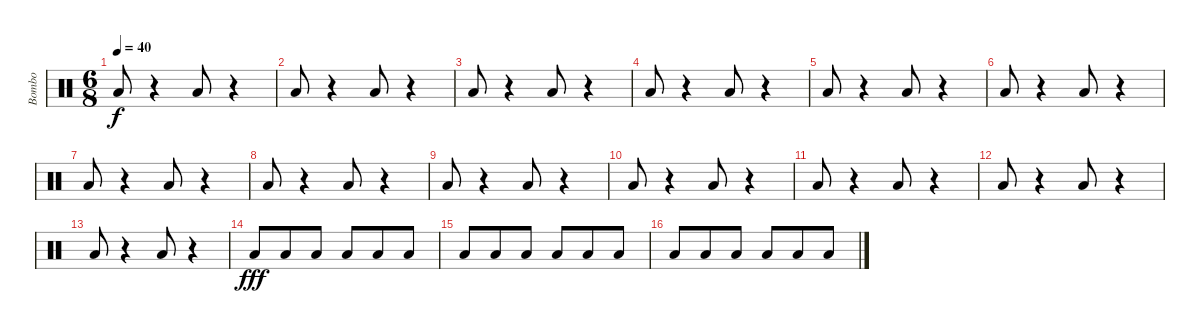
\track ("Bombo" "Bombo") {instrument percussion}
\staff {score}
\articulation defaults
\ts (6 8)
\tempo 40
\clef neutral
\ks c "Low Floor Tom (hit)".8{dy f}
r.4 "Low Floor Tom (hit)".8 r.4 |
"Low Floor Tom (hit)".8 r.4 "Low Floor Tom (hit)".8 r.4 |
"Low Floor Tom (hit)".8 r.4 "Low Floor Tom (hit)".8 r.4 |
"Low Floor Tom (hit)".8 r.4 "Low Floor Tom (hit)".8 r.4 |
"Low Floor Tom (hit)".8 r.4 "Low Floor Tom (hit)".8 r.4 |
"Low Floor Tom (hit)".8 r.4 "Low Floor Tom (hit)".8 r.4 |
"Low Floor Tom (hit)".8 r.4 "Low Floor Tom (hit)".8 r.4 |
"Low Floor Tom (hit)".8 r.4 "Low Floor Tom (hit)".8 r.4 |
"Low Floor Tom (hit)".8 r.4 "Low Floor Tom (hit)".8 r.4 |
"Low Floor Tom (hit)".8 r.4 "Low Floor Tom (hit)".8 r.4 |
"Low Floor Tom (hit)".8 r.4 "Low Floor Tom (hit)".8 r.4 |
"Low Floor Tom (hit)".8 r.4 "Low Floor Tom (hit)".8 r.4 |
"Low Floor Tom (hit)".8 r.4 "Low Floor Tom (hit)".8 r.4 |
"Low Floor Tom (hit)".8{dy fff} "Low Floor Tom (hit)".8 "Low Floor Tom (hit)".8 "Low Floor Tom (hit)".8 "Low Floor Tom (hit)".8 "Low Floor Tom (hit)".8 |
"Low Floor Tom (hit)".8 "Low Floor Tom (hit)".8 "Low Floor Tom (hit)".8 "Low Floor Tom (hit)".8 "Low Floor Tom (hit)".8 "Low Floor Tom (hit)".8 |
"Low Floor Tom (hit)".8 "Low Floor Tom (hit)".8 "Low Floor Tom (hit)".8 "Low Floor Tom (hit)".8 "Low Floor Tom (hit)".8 "Low Floor Tom (hit)".8
